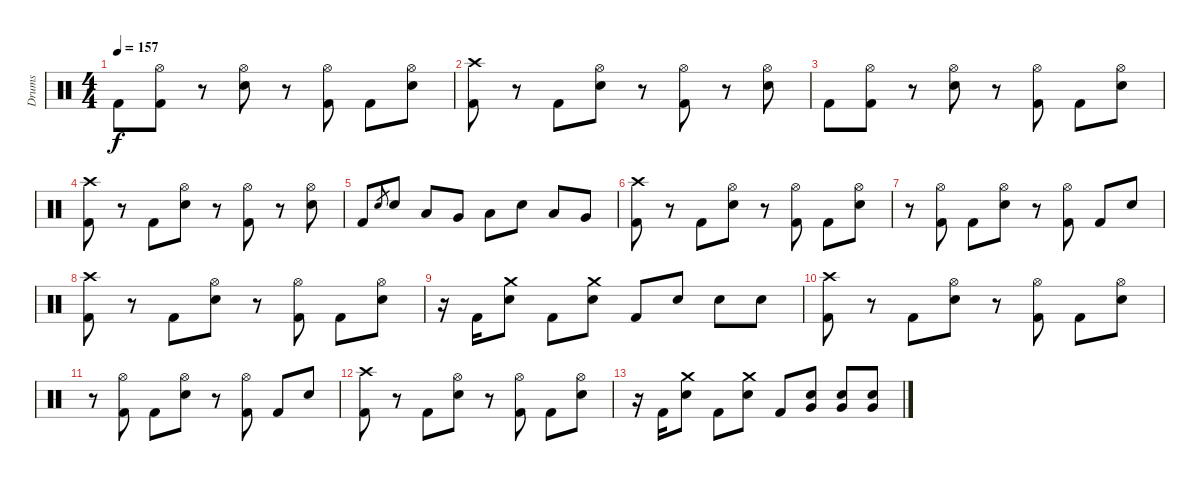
\track ("Drums" "Drums") {instrument percussion}
\staff {score}
\articulation defaults
\ts (4 4)
\tempo 157
\clef neutral
\ks c "Kick (hit) 2".8{dy f}
("Hi-Hat (open)" "Kick (hit) 2").8 r.8 ("Hi-Hat (open)" "Electric Snare (hit)").8 r.8 ("Hi-Hat (open)" "Kick (hit) 2").8 "Kick (hit) 2".8 ("Hi-Hat (open)" "Electric Snare (hit)").8 |
("Crash high (hit)" "Kick (hit) 2").8 r.8 "Kick (hit) 2".8 ("Hi-Hat (open)" "Electric Snare (hit)").8 r.8 ("Hi-Hat (open)" "Kick (hit) 2").8 r.8 ("Hi-Hat (open)" "Electric Snare (hit)").8 |
"Kick (hit) 2".8 ("Hi-Hat (open)" "Kick (hit) 2").8 r.8 ("Hi-Hat (open)" "Electric Snare (hit)").8 r.8 ("Hi-Hat (open)" "Kick (hit) 2").8 "Kick (hit) 2".8 ("Hi-Hat (open)" "Electric Snare (hit)").8 |
("Crash high (hit)" "Kick (hit) 2").8 r.8 "Kick (hit) 2".8 ("Hi-Hat (open)" "Electric Snare (hit)").8 r.8 ("Hi-Hat (open)" "Kick (hit) 2").8 r.8 ("Hi-Hat (open)" "Electric Snare (hit)").8 |
"Kick (hit) 2".8 "Electric Snare (hit)".8{gr} "Electric Snare (hit)".8 "Low Tom (hit)".8 "Very Low Tom (hit)".8 "Low Tom (hit)".8 "Electric Snare (hit)".8 "Low Tom (hit)".8 "Very Low Tom (hit)".8 |
("Crash high (hit)" "Kick (hit) 2").8 r.8 "Kick (hit) 2".8 ("Hi-Hat (open)" "Electric Snare (hit)").8 r.8 ("Hi-Hat (open)" "Kick (hit) 2").8 "Kick (hit) 2".8 ("Hi-Hat (open)" "Electric Snare (hit)").8 |
r.8 ("Hi-Hat (open)" "Kick (hit) 2").8 "Kick (hit) 2".8 ("Hi-Hat (open)" "Electric Snare (hit)").8 r.8 ("Hi-Hat (open)" "Kick (hit) 2").8 "Kick (hit) 2".8 "Electric Snare (hit)".8 |
("Crash high (hit)" "Kick (hit) 2").8 r.8 "Kick (hit) 2".8 ("Hi-Hat (open)" "Electric Snare (hit)").8 r.8 ("Hi-Hat (open)" "Kick (hit) 2").8 "Kick (hit) 2".8 ("Hi-Hat (open)" "Electric Snare (hit)").8 |
r.16 "Kick (hit) 2".16 ("Crash medium (hit)" "Electric Snare (hit)").8 "Kick (hit) 2".8 ("Crash medium (hit)" "Electric Snare (hit)").8 "Kick (hit) 2".8 "Electric Snare (hit)".8 "Electric Snare (hit)".8 "Electric Snare (hit)".8 |
("Crash high (hit)" "Kick (hit) 2").8 r.8 "Kick (hit) 2".8 ("Hi-Hat (open)" "Electric Snare (hit)").8 r.8 ("Hi-Hat (open)" "Kick (hit) 2").8 "Kick (hit) 2".8 ("Hi-Hat (open)" "Electric Snare (hit)").8 |
r.8 ("Hi-Hat (open)" "Kick (hit) 2").8 "Kick (hit) 2".8 ("Hi-Hat (open)" "Electric Snare (hit)").8 r.8 ("Hi-Hat (open)" "Kick (hit) 2").8 "Kick (hit) 2".8 "Electric Snare (hit)".8 |
("Crash high (hit)" "Kick (hit) 2").8 r.8 "Kick (hit) 2".8 ("Hi-Hat (open)" "Electric Snare (hit)").8 r.8 ("Hi-Hat (open)" "Kick (hit) 2").8 "Kick (hit) 2".8 ("Hi-Hat (open)" "Electric Snare (hit)").8 |
r.16 "Kick (hit) 2".16 ("Crash medium (hit)" "Electric Snare (hit)").8 "Kick (hit) 2".8 ("Crash medium (hit)" "Electric Snare (hit)").8 "Kick (hit) 2".8 ("Very Low Tom (hit)" "Electric Snare (hit)").8 ("Very Low Tom (hit)" "Electric Snare (hit)").8 ("Very Low Tom (hit)" "Electric Snare (hit)").8
